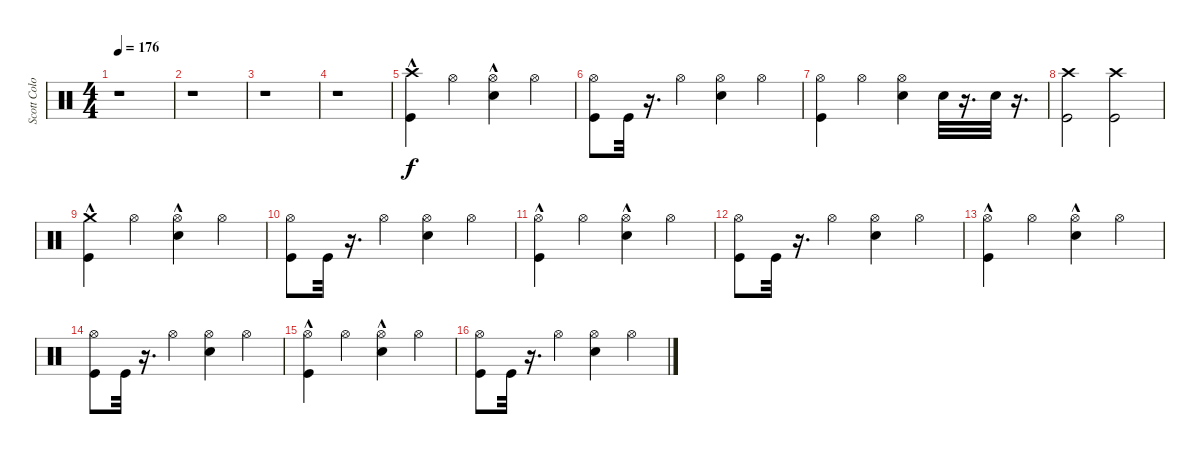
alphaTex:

\track ("Scott Colombus" "Scott Colo") {instrument percussion}
\staff {score}
\articulation defaults
\ts (4 4)
\tempo 176
\clef neutral
\ks c
r.1{dy f} |
r.1 |
r.1 |
r.1 |
("Kick (hit)"{hac} "Crash high (hit)").4 "Hi-Hat (open)".4 ("Hi-Hat (open)" "Snare (hit) 2"{hac}).4 "Hi-Hat (open)".4 |
("Kick (hit)" "Hi-Hat (open)").8 "Kick (hit)".32 r.16{d} "Hi-Hat (open)".4 ("Hi-Hat (open)" "Snare (hit) 2").4 "Hi-Hat (open)".4 |
("Kick (hit)" "Hi-Hat (open)").4 "Hi-Hat (open)".4 ("Hi-Hat (open)" "Snare (hit) 2").4 "Snare (hit) 2".32 r.16{d} "Snare (hit) 2".32 r.16{d} |
("Crash high (hit)" "Kick (hit)").2 ("Crash high (hit)" "Kick (hit)").2 |
("Crash medium (hit)" "Kick (hit)"{hac}).4 "Hi-Hat (open)".4 ("Hi-Hat (open)" "Snare (hit) 2"{hac}).4 "Hi-Hat (open)".4 |
("Hi-Hat (open)" "Kick (hit)").8 "Kick (hit)".32 r.16{d} "Hi-Hat (open)".4 ("Hi-Hat (open)" "Snare (hit) 2").4 "Hi-Hat (open)".4 |
("Hi-Hat (open)" "Kick (hit)"{hac}).4 "Hi-Hat (open)".4 ("Hi-Hat (open)" "Snare (hit) 2"{hac}).4 "Hi-Hat (open)".4 |
("Hi-Hat (open)" "Kick (hit)").8 "Kick (hit)".32 r.16{d} "Hi-Hat (open)".4 ("Hi-Hat (open)" "Snare (hit) 2").4 "Hi-Hat (open)".4 |
("Hi-Hat (open)" "Kick (hit)"{hac}).4 "Hi-Hat (open)".4 ("Hi-Hat (open)" "Snare (hit) 2"{hac}).4 "Hi-Hat (open)".4 |
("Hi-Hat (open)" "Kick (hit)").8 "Kick (hit)".32 r.16{d} "Hi-Hat (open)".4 ("Hi-Hat (open)" "Snare (hit) 2").4 "Hi-Hat (open)".4 |
("Hi-Hat (open)" "Kick (hit)"{hac}).4 "Hi-Hat (open)".4 ("Hi-Hat (open)" "Snare (hit) 2"{hac}).4 "Hi-Hat (open)".4 |
("Hi-Hat (open)" "Kick (hit)").8 "Kick (hit)".32 r.16{d} "Hi-Hat (open)".4 ("Hi-Hat (open)" "Snare (hit) 2").4 "Hi-Hat (open)".4
